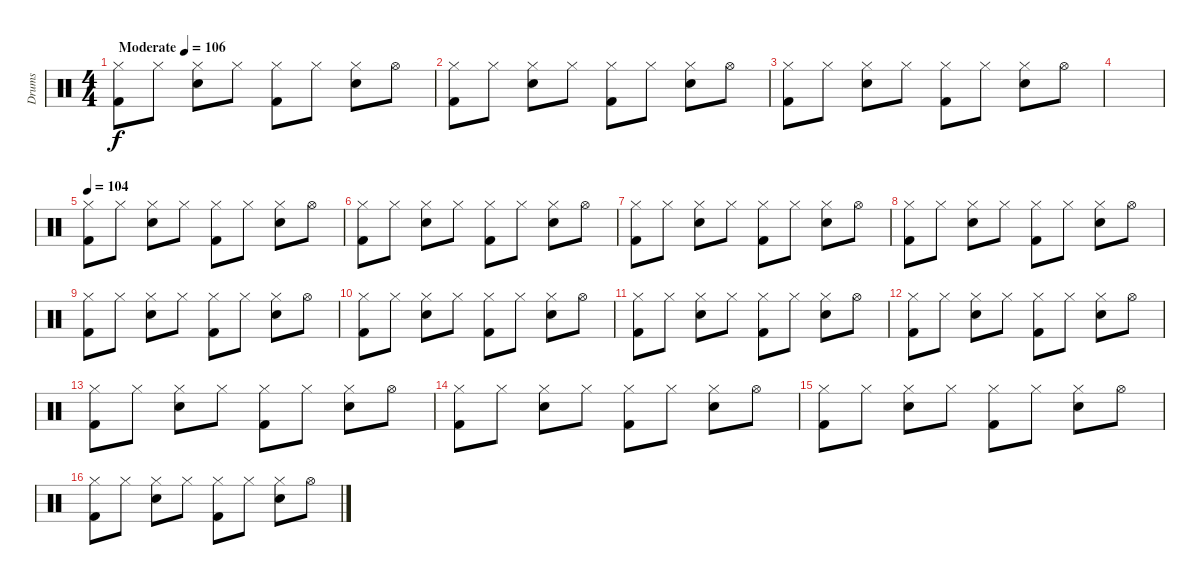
\track ("Drums" "Drums") {instrument percussion}
\staff {score}
\articulation defaults
\ts (4 4)
\tempo (106 "Moderate")
\clef neutral
\ks c
("Hi-Hat (closed)" "Kick (hit) 2").8{dy f} "Hi-Hat (closed)".8 ("Hi-Hat (closed)" "Snare (hit) 2").8 "Hi-Hat (closed)".8 ("Hi-Hat (closed)" "Kick (hit) 2").8 "Hi-Hat (closed)".8 ("Hi-Hat (closed)" "Snare (hit) 2").8 "Hi-Hat (open)".8 |
("Hi-Hat (closed)" "Kick (hit) 2").8 "Hi-Hat (closed)".8 ("Hi-Hat (closed)" "Snare (hit) 2").8 "Hi-Hat (closed)".8 ("Hi-Hat (closed)" "Kick (hit) 2").8 "Hi-Hat (closed)".8 ("Hi-Hat (closed)" "Snare (hit) 2").8 "Hi-Hat (open)".8 |
("Hi-Hat (closed)" "Kick (hit) 2").8 "Hi-Hat (closed)".8 ("Hi-Hat (closed)" "Snare (hit) 2").8 "Hi-Hat (closed)".8 ("Hi-Hat (closed)" "Kick (hit) 2").8 "Hi-Hat (closed)".8 ("Hi-Hat (closed)" "Snare (hit) 2").8 "Hi-Hat (open)".8 |
|
\tempo 104
("Hi-Hat (closed)" "Kick (hit) 2").8 "Hi-Hat (closed)".8 ("Hi-Hat (closed)" "Snare (hit) 2").8 "Hi-Hat (closed)".8 ("Hi-Hat (closed)" "Kick (hit) 2").8 "Hi-Hat (closed)".8 ("Hi-Hat (closed)" "Snare (hit) 2").8 "Hi-Hat (open)".8 |
("Hi-Hat (closed)" "Kick (hit) 2").8 "Hi-Hat (closed)".8 ("Hi-Hat (closed)" "Snare (hit) 2").8 "Hi-Hat (closed)".8 ("Hi-Hat (closed)" "Kick (hit) 2").8 "Hi-Hat (closed)".8 ("Hi-Hat (closed)" "Snare (hit) 2").8 "Hi-Hat (open)".8 |
("Hi-Hat (closed)" "Kick (hit) 2").8 "Hi-Hat (closed)".8 ("Hi-Hat (closed)" "Snare (hit) 2").8 "Hi-Hat (closed)".8 ("Hi-Hat (closed)" "Kick (hit) 2").8 "Hi-Hat (closed)".8 ("Hi-Hat (closed)" "Snare (hit) 2").8 "Hi-Hat (open)".8 |
("Hi-Hat (closed)" "Kick (hit) 2").8 "Hi-Hat (closed)".8 ("Hi-Hat (closed)" "Snare (hit) 2").8 "Hi-Hat (closed)".8 ("Hi-Hat (closed)" "Kick (hit) 2").8 "Hi-Hat (closed)".8 ("Hi-Hat (closed)" "Snare (hit) 2").8 "Hi-Hat (open)".8 |
("Hi-Hat (closed)" "Kick (hit) 2").8 "Hi-Hat (closed)".8 ("Hi-Hat (closed)" "Snare (hit) 2").8 "Hi-Hat (closed)".8 ("Hi-Hat (closed)" "Kick (hit) 2").8 "Hi-Hat (closed)".8 ("Hi-Hat (closed)" "Snare (hit) 2").8 "Hi-Hat (open)".8 |
("Hi-Hat (closed)" "Kick (hit) 2").8 "Hi-Hat (closed)".8 ("Hi-Hat (closed)" "Snare (hit) 2").8 "Hi-Hat (closed)".8 ("Hi-Hat (closed)" "Kick (hit) 2").8 "Hi-Hat (closed)".8 ("Hi-Hat (closed)" "Snare (hit) 2").8 "Hi-Hat (open)".8 |
("Hi-Hat (closed)" "Kick (hit) 2").8 "Hi-Hat (closed)".8 ("Hi-Hat (closed)" "Snare (hit) 2").8 "Hi-Hat (closed)".8 ("Hi-Hat (closed)" "Kick (hit) 2").8 "Hi-Hat (closed)".8 ("Hi-Hat (closed)" "Snare (hit) 2").8 "Hi-Hat (open)".8 |
("Hi-Hat (closed)" "Kick (hit) 2").8 "Hi-Hat (closed)".8 ("Hi-Hat (closed)" "Snare (hit) 2").8 "Hi-Hat (closed)".8 ("Hi-Hat (closed)" "Kick (hit) 2").8 "Hi-Hat (closed)".8 ("Hi-Hat (closed)" "Snare (hit) 2").8 "Hi-Hat (open)".8 |
("Hi-Hat (closed)" "Kick (hit) 2").8 "Hi-Hat (closed)".8 ("Hi-Hat (closed)" "Snare (hit) 2").8 "Hi-Hat (closed)".8 ("Hi-Hat (closed)" "Kick (hit) 2").8 "Hi-Hat (closed)".8 ("Hi-Hat (closed)" "Snare (hit) 2").8 "Hi-Hat (open)".8 |
("Hi-Hat (closed)" "Kick (hit) 2").8 "Hi-Hat (closed)".8 ("Hi-Hat (closed)" "Snare (hit) 2").8 "Hi-Hat (closed)".8 ("Hi-Hat (closed)" "Kick (hit) 2").8 "Hi-Hat (closed)".8 ("Hi-Hat (closed)" "Snare (hit) 2").8 "Hi-Hat (open)".8 |
("Hi-Hat (closed)" "Kick (hit) 2").8 "Hi-Hat (closed)".8 ("Hi-Hat (closed)" "Snare (hit) 2").8 "Hi-Hat (closed)".8 ("Hi-Hat (closed)" "Kick (hit) 2").8 "Hi-Hat (closed)".8 ("Hi-Hat (closed)" "Snare (hit) 2").8 "Hi-Hat (open)".8 |
("Hi-Hat (closed)" "Kick (hit) 2").8 "Hi-Hat (closed)".8 ("Hi-Hat (closed)" "Snare (hit) 2").8 "Hi-Hat (closed)".8 ("Hi-Hat (closed)" "Kick (hit) 2").8 "Hi-Hat (closed)".8 ("Hi-Hat (closed)" "Snare (hit) 2").8 "Hi-Hat (open)".8
